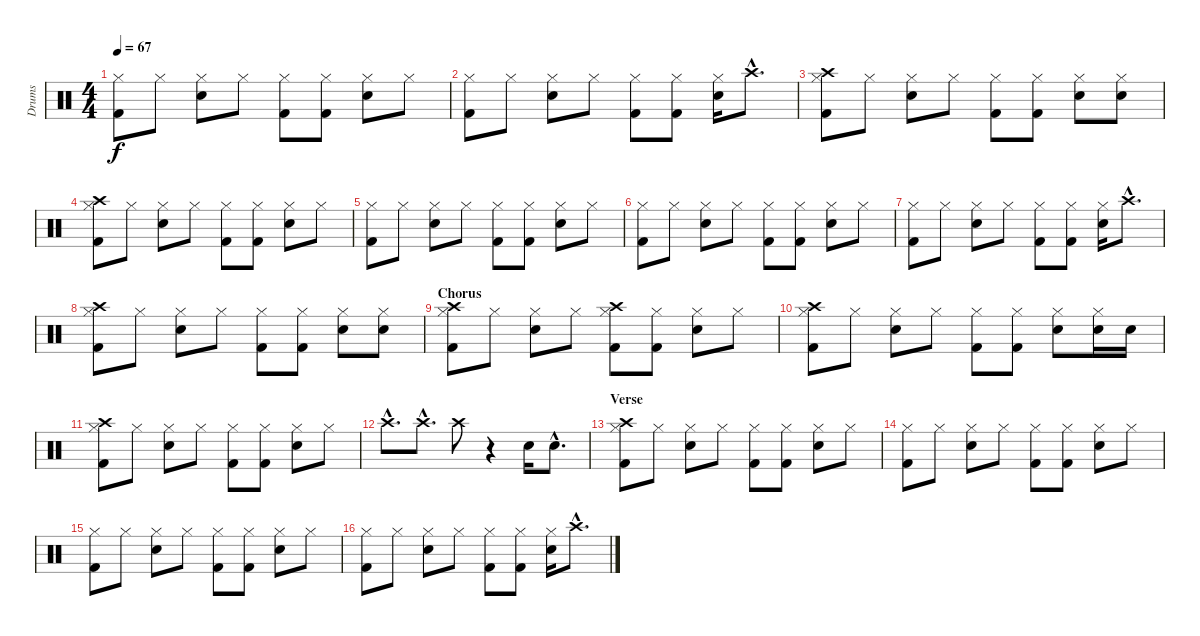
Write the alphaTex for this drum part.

\track ("Drums" "Drums") {instrument percussion}
\staff {score}
\articulation defaults
\ts (4 4)
\tempo 67
\clef neutral
\ks c
("Hi-Hat (closed)" "Kick (hit) 2").8{dy f} "Hi-Hat (closed)".8 ("Hi-Hat (closed)" "Snare (hit) 2").8 "Hi-Hat (closed)".8 ("Hi-Hat (closed)" "Kick (hit) 2").8 ("Hi-Hat (closed)" "Kick (hit) 2").8 ("Hi-Hat (closed)" "Snare (hit) 2").8 "Hi-Hat (closed)".8 |
("Hi-Hat (closed)" "Kick (hit) 2").8 "Hi-Hat (closed)".8 ("Hi-Hat (closed)" "Snare (hit) 2").8 "Hi-Hat (closed)".8 ("Hi-Hat (closed)" "Kick (hit) 2").8 ("Hi-Hat (closed)" "Kick (hit) 2").8 ("Hi-Hat (closed)" "Snare (hit) 2").16 "Crash high (hit)"{hac}.8{d} |
("Crash high (hit)" "Hi-Hat (closed)" "Kick (hit) 2").8 "Hi-Hat (closed)".8 ("Hi-Hat (closed)" "Snare (hit) 2").8 "Hi-Hat (closed)".8 ("Hi-Hat (closed)" "Kick (hit) 2").8 ("Hi-Hat (closed)" "Kick (hit) 2").8 ("Hi-Hat (closed)" "Snare (hit) 2").8 ("Hi-Hat (closed)" "Snare (hit) 2").8 |
("Hi-Hat (closed)" "Kick (hit) 2" "Crash high (hit)").8 "Hi-Hat (closed)".8 ("Hi-Hat (closed)" "Snare (hit) 2").8 "Hi-Hat (closed)".8 ("Hi-Hat (closed)" "Kick (hit) 2").8 ("Hi-Hat (closed)" "Kick (hit) 2").8 ("Hi-Hat (closed)" "Snare (hit) 2").8 "Hi-Hat (closed)".8 |
("Hi-Hat (closed)" "Kick (hit) 2").8 "Hi-Hat (closed)".8 ("Hi-Hat (closed)" "Snare (hit) 2").8 "Hi-Hat (closed)".8 ("Hi-Hat (closed)" "Kick (hit) 2").8 ("Hi-Hat (closed)" "Kick (hit) 2").8 ("Hi-Hat (closed)" "Snare (hit) 2").8 "Hi-Hat (closed)".8 |
("Hi-Hat (closed)" "Kick (hit) 2").8 "Hi-Hat (closed)".8 ("Hi-Hat (closed)" "Snare (hit) 2").8 "Hi-Hat (closed)".8 ("Hi-Hat (closed)" "Kick (hit) 2").8 ("Hi-Hat (closed)" "Kick (hit) 2").8 ("Hi-Hat (closed)" "Snare (hit) 2").8 "Hi-Hat (closed)".8 |
("Hi-Hat (closed)" "Kick (hit) 2").8 "Hi-Hat (closed)".8 ("Hi-Hat (closed)" "Snare (hit) 2").8 "Hi-Hat (closed)".8 ("Hi-Hat (closed)" "Kick (hit) 2").8 ("Hi-Hat (closed)" "Kick (hit) 2").8 ("Hi-Hat (closed)" "Snare (hit) 2").16 "Crash high (hit)"{hac}.8{d} |
("Crash high (hit)" "Hi-Hat (closed)" "Kick (hit) 2").8 "Hi-Hat (closed)".8 ("Hi-Hat (closed)" "Snare (hit) 2").8 "Hi-Hat (closed)".8 ("Hi-Hat (closed)" "Kick (hit) 2").8 ("Hi-Hat (closed)" "Kick (hit) 2").8 ("Hi-Hat (closed)" "Snare (hit) 2").8 ("Hi-Hat (closed)" "Snare (hit) 2").8 |
\section ("" "Chorus")
("Hi-Hat (closed)" "Kick (hit) 2" "Crash high (hit)").8 "Hi-Hat (closed)".8 ("Hi-Hat (closed)" "Snare (hit) 2").8 "Hi-Hat (closed)".8 ("Hi-Hat (closed)" "Kick (hit) 2" "Crash high (hit)").8 ("Hi-Hat (closed)" "Kick (hit) 2").8 ("Hi-Hat (closed)" "Snare (hit) 2").8 "Hi-Hat (closed)".8 |
("Hi-Hat (closed)" "Kick (hit) 2" "Crash high (hit)").8 "Hi-Hat (closed)".8 ("Hi-Hat (closed)" "Snare (hit) 2").8 "Hi-Hat (closed)".8 ("Hi-Hat (closed)" "Kick (hit) 2").8 ("Hi-Hat (closed)" "Kick (hit) 2").8 ("Hi-Hat (closed)" "Snare (hit) 2").8 ("Hi-Hat (closed)" "Snare (hit) 2").16 "Snare (hit) 2".16 |
("Hi-Hat (closed)" "Kick (hit) 2" "Crash high (hit)").8 "Hi-Hat (closed)".8 ("Hi-Hat (closed)" "Snare (hit) 2").8 "Hi-Hat (closed)".8 ("Hi-Hat (closed)" "Kick (hit) 2").8 ("Hi-Hat (closed)" "Kick (hit) 2").8 ("Hi-Hat (closed)" "Snare (hit) 2").8 "Hi-Hat (closed)".8 |
"Crash high (hit)"{hac}.8{d} "Crash high (hit)"{hac}.8{d} "Crash high (hit)".8 r.4 "Snare (hit) 2".16 "Snare (hit) 2"{hac}.8{d} |
\section ("" "Verse")
("Hi-Hat (closed)" "Kick (hit) 2" "Crash high (hit)").8 "Hi-Hat (closed)".8 ("Hi-Hat (closed)" "Snare (hit) 2").8 "Hi-Hat (closed)".8 ("Hi-Hat (closed)" "Kick (hit) 2").8 ("Hi-Hat (closed)" "Kick (hit) 2").8 ("Hi-Hat (closed)" "Snare (hit) 2").8 "Hi-Hat (closed)".8 |
("Hi-Hat (closed)" "Kick (hit) 2").8 "Hi-Hat (closed)".8 ("Hi-Hat (closed)" "Snare (hit) 2").8 "Hi-Hat (closed)".8 ("Hi-Hat (closed)" "Kick (hit) 2").8 ("Hi-Hat (closed)" "Kick (hit) 2").8 ("Hi-Hat (closed)" "Snare (hit) 2").8 "Hi-Hat (closed)".8 |
("Hi-Hat (closed)" "Kick (hit) 2").8 "Hi-Hat (closed)".8 ("Hi-Hat (closed)" "Snare (hit) 2").8 "Hi-Hat (closed)".8 ("Hi-Hat (closed)" "Kick (hit) 2").8 ("Hi-Hat (closed)" "Kick (hit) 2").8 ("Hi-Hat (closed)" "Snare (hit) 2").8 "Hi-Hat (closed)".8 |
("Hi-Hat (closed)" "Kick (hit) 2").8 "Hi-Hat (closed)".8 ("Hi-Hat (closed)" "Snare (hit) 2").8 "Hi-Hat (closed)".8 ("Hi-Hat (closed)" "Kick (hit) 2").8 ("Hi-Hat (closed)" "Kick (hit) 2").8 ("Hi-Hat (closed)" "Snare (hit) 2").16 "Crash high (hit)"{hac}.8{d}
